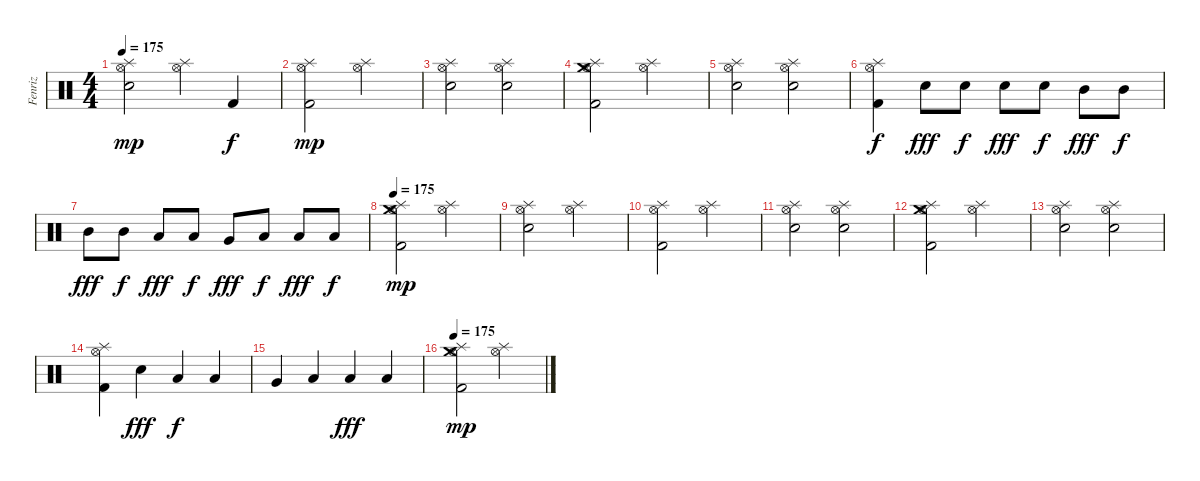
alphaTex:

\track ("Fenriz" "Fenriz") {instrument percussion}
\staff {score}
\articulation defaults
\ts (4 4)
\tempo 175
\clef neutral
\ks c
("Electric Snare (hit)" "Splash (hit)" "Hi-Hat (open)").2{dy mp} ("Splash (hit)" "Hi-Hat (open)").4 "Kick (hit) 2".4{dy f} |
("Kick (hit) 2" "Splash (hit)" "Hi-Hat (open)").2{dy mp} ("Splash (hit)" "Hi-Hat (open)").2 |
("Electric Snare (hit)" "Splash (hit)" "Hi-Hat (open)").2 ("Electric Snare (hit)" "Splash (hit)" "Hi-Hat (open)").2 |
("Kick (hit) 2" "Crash medium (hit)" "Splash (hit)" "Hi-Hat (open)").2 ("Splash (hit)" "Hi-Hat (open)").2 |
("Electric Snare (hit)" "Splash (hit)" "Hi-Hat (open)").2 ("Electric Snare (hit)" "Splash (hit)" "Hi-Hat (open)").2 |
("Kick (hit) 2" "Splash (hit)" "Hi-Hat (open)").4{dy f} "Electric Snare (hit)".8{dy fff} "Electric Snare (hit)".8{dy f} "Electric Snare (hit)".8{dy fff} "Electric Snare (hit)".8{dy f} "Mid Tom (hit)".8{dy fff} "Mid Tom (hit)".8{dy f} |
"Mid Tom (hit)".8{dy fff} "Mid Tom (hit)".8{dy f} "Low Tom (hit)".8{dy fff} "Low Tom (hit)".8{dy f} "Very Low Tom (hit)".8{dy fff} "Low Floor Tom (hit)".8{dy f} "Low Floor Tom (hit)".8{dy fff} "Low Floor Tom (hit)".8{dy f} |
\tempo 175
("Kick (hit) 2" "Crash medium (hit)" "Splash (hit)" "Hi-Hat (open)").2{dy mp} ("Splash (hit)" "Hi-Hat (open)").2 |
("Electric Snare (hit)" "Splash (hit)" "Hi-Hat (open)").2 ("Splash (hit)" "Hi-Hat (open)").2 |
("Kick (hit) 2" "Splash (hit)" "Hi-Hat (open)").2 ("Splash (hit)" "Hi-Hat (open)").2 |
("Electric Snare (hit)" "Splash (hit)" "Hi-Hat (open)").2 ("Electric Snare (hit)" "Splash (hit)" "Hi-Hat (open)").2 |
("Kick (hit) 2" "Crash medium (hit)" "Splash (hit)" "Hi-Hat (open)").2 ("Splash (hit)" "Hi-Hat (open)").2 |
("Electric Snare (hit)" "Splash (hit)" "Hi-Hat (open)").2 ("Electric Snare (hit)" "Splash (hit)" "Hi-Hat (open)").2 |
("Kick (hit) 2" "Splash (hit)" "Hi-Hat (open)").4 "Electric Snare (hit)".4{dy fff} "Low Tom (hit)".4{dy f} "Low Tom (hit)".4 |
"Very Low Tom (hit)".4 "Low Floor Tom (hit)".4 "Low Floor Tom (hit)".4{dy fff} "Low Floor Tom (hit)".4 |
\tempo 175
("Kick (hit) 2" "Crash medium (hit)" "Splash (hit)" "Hi-Hat (open)").2{dy mp} ("Splash (hit)" "Hi-Hat (open)").2
